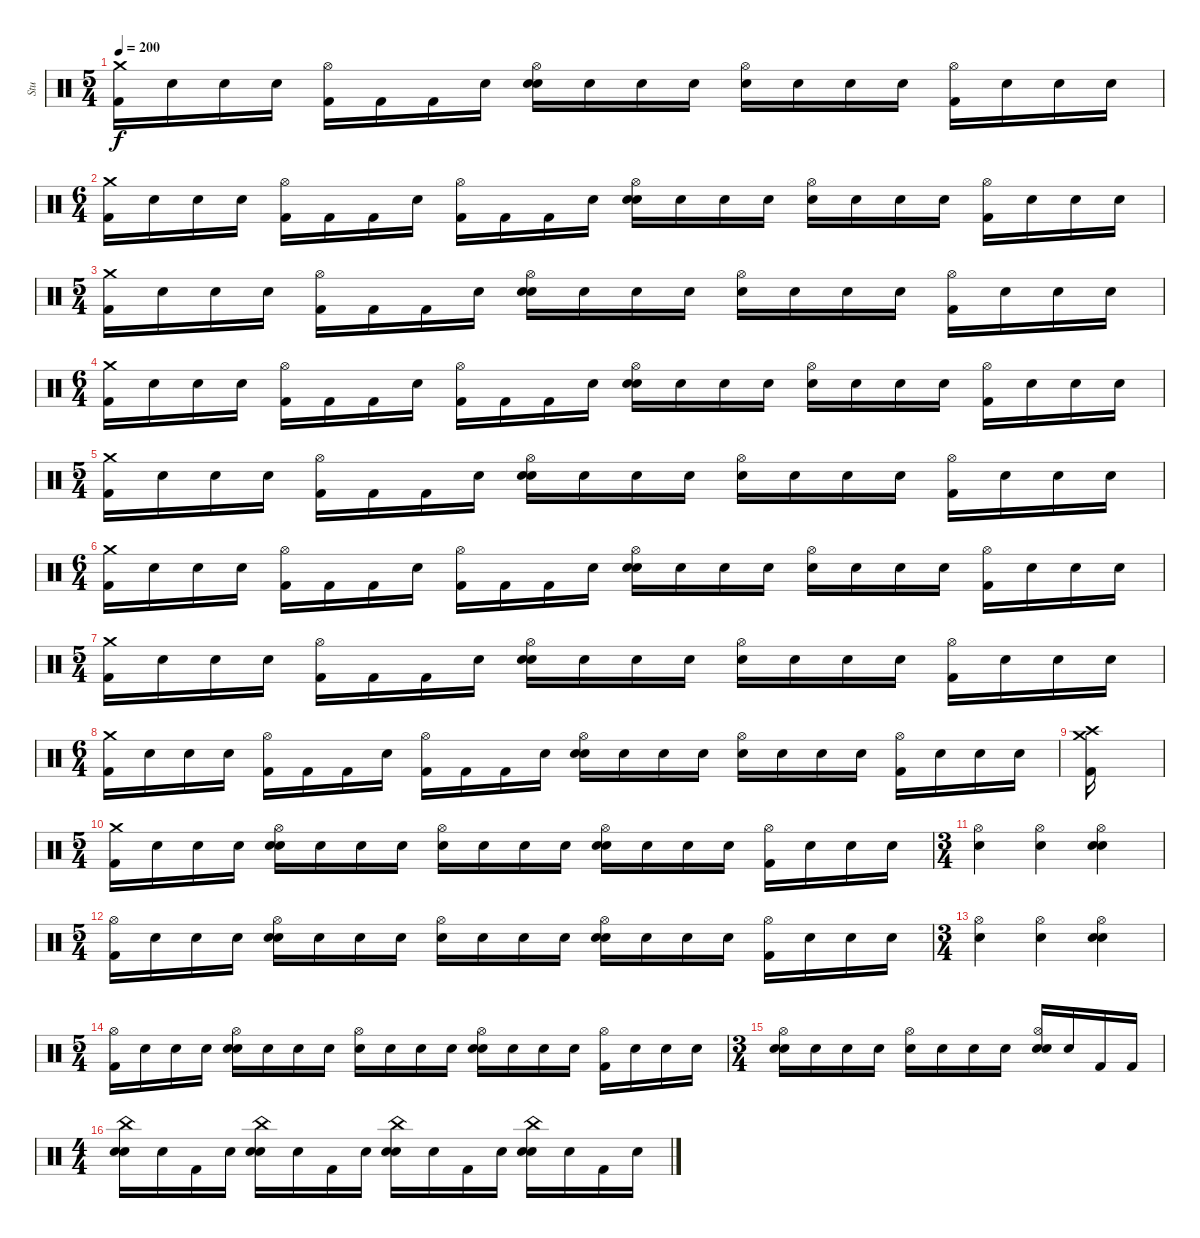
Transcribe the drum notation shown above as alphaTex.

\track ("Stu" "Stu") {instrument percussion}
\staff {score}
\articulation defaults
\ts (5 4)
\tempo 200
\clef neutral
\ks c
("Crash medium (hit)" "Kick (hit) 2").16{dy f} "Snare (hit)"{x}.16 "Snare (hit)"{x}.16 "Snare (hit)"{x}.16 ("Hi-Hat (open)" "Kick (hit) 2").16 "Kick (hit) 2".16 "Kick (hit) 2".16 "Snare (hit)"{x}.16 ("Hi-Hat (open)" "Electric Snare (hit)" "Snare (hit)"{x}).16 "Snare (hit)"{x}.16 "Snare (hit)"{x}.16 "Snare (hit)"{x}.16 ("Hi-Hat (open)" "Snare (hit)"{x}).16 "Snare (hit)"{x}.16 "Snare (hit)"{x}.16 "Snare (hit)"{x}.16 ("Hi-Hat (open)" "Kick (hit) 2").16 "Snare (hit)"{x}.16 "Snare (hit)"{x}.16 "Snare (hit)"{x}.16 |
\ts (6 4)
("Crash medium (hit)" "Kick (hit) 2").16 "Snare (hit)"{x}.16 "Snare (hit)"{x}.16 "Snare (hit)"{x}.16 ("Hi-Hat (open)" "Kick (hit) 2").16 "Kick (hit) 2".16 "Kick (hit) 2".16 "Snare (hit)"{x}.16 ("Hi-Hat (open)" "Kick (hit) 2").16 "Kick (hit) 2".16 "Kick (hit) 2".16 "Snare (hit)"{x}.16 ("Hi-Hat (open)" "Electric Snare (hit)" "Snare (hit)"{x}).16 "Snare (hit)"{x}.16 "Snare (hit)"{x}.16 "Snare (hit)"{x}.16 ("Hi-Hat (open)" "Snare (hit)"{x}).16 "Snare (hit)"{x}.16 "Snare (hit)"{x}.16 "Snare (hit)"{x}.16 ("Hi-Hat (open)" "Kick (hit) 2").16 "Snare (hit)"{x}.16 "Snare (hit)"{x}.16 "Snare (hit)"{x}.16 |
\ts (5 4)
("Crash medium (hit)" "Kick (hit) 2").16 "Snare (hit)"{x}.16 "Snare (hit)"{x}.16 "Snare (hit)"{x}.16 ("Hi-Hat (open)" "Kick (hit) 2").16 "Kick (hit) 2".16 "Kick (hit) 2".16 "Snare (hit)"{x}.16 ("Hi-Hat (open)" "Electric Snare (hit)" "Snare (hit)"{x}).16 "Snare (hit)"{x}.16 "Snare (hit)"{x}.16 "Snare (hit)"{x}.16 ("Hi-Hat (open)" "Snare (hit)"{x}).16 "Snare (hit)"{x}.16 "Snare (hit)"{x}.16 "Snare (hit)"{x}.16 ("Hi-Hat (open)" "Kick (hit) 2").16 "Snare (hit)"{x}.16 "Snare (hit)"{x}.16 "Snare (hit)"{x}.16 |
\ts (6 4)
("Crash medium (hit)" "Kick (hit) 2").16 "Snare (hit)"{x}.16 "Snare (hit)"{x}.16 "Snare (hit)"{x}.16 ("Hi-Hat (open)" "Kick (hit) 2").16 "Kick (hit) 2".16 "Kick (hit) 2".16 "Snare (hit)"{x}.16 ("Hi-Hat (open)" "Kick (hit) 2").16 "Kick (hit) 2".16 "Kick (hit) 2".16 "Snare (hit)"{x}.16 ("Hi-Hat (open)" "Electric Snare (hit)" "Snare (hit)"{x}).16 "Snare (hit)"{x}.16 "Snare (hit)"{x}.16 "Snare (hit)"{x}.16 ("Hi-Hat (open)" "Snare (hit)"{x}).16 "Snare (hit)"{x}.16 "Snare (hit)"{x}.16 "Snare (hit)"{x}.16 ("Hi-Hat (open)" "Kick (hit) 2").16 "Snare (hit)"{x}.16 "Snare (hit)"{x}.16 "Snare (hit)"{x}.16 |
\ts (5 4)
("Crash medium (hit)" "Kick (hit) 2").16 "Snare (hit)"{x}.16 "Snare (hit)"{x}.16 "Snare (hit)"{x}.16 ("Hi-Hat (open)" "Kick (hit) 2").16 "Kick (hit) 2".16 "Kick (hit) 2".16 "Snare (hit)"{x}.16 ("Hi-Hat (open)" "Electric Snare (hit)" "Snare (hit)"{x}).16 "Snare (hit)"{x}.16 "Snare (hit)"{x}.16 "Snare (hit)"{x}.16 ("Hi-Hat (open)" "Snare (hit)"{x}).16 "Snare (hit)"{x}.16 "Snare (hit)"{x}.16 "Snare (hit)"{x}.16 ("Hi-Hat (open)" "Kick (hit) 2").16 "Snare (hit)"{x}.16 "Snare (hit)"{x}.16 "Snare (hit)"{x}.16 |
\ts (6 4)
("Crash medium (hit)" "Kick (hit) 2").16 "Snare (hit)"{x}.16 "Snare (hit)"{x}.16 "Snare (hit)"{x}.16 ("Hi-Hat (open)" "Kick (hit) 2").16 "Kick (hit) 2".16 "Kick (hit) 2".16 "Snare (hit)"{x}.16 ("Hi-Hat (open)" "Kick (hit) 2").16 "Kick (hit) 2".16 "Kick (hit) 2".16 "Snare (hit)"{x}.16 ("Hi-Hat (open)" "Electric Snare (hit)" "Snare (hit)"{x}).16 "Snare (hit)"{x}.16 "Snare (hit)"{x}.16 "Snare (hit)"{x}.16 ("Hi-Hat (open)" "Snare (hit)"{x}).16 "Snare (hit)"{x}.16 "Snare (hit)"{x}.16 "Snare (hit)"{x}.16 ("Hi-Hat (open)" "Kick (hit) 2").16 "Snare (hit)"{x}.16 "Snare (hit)"{x}.16 "Snare (hit)"{x}.16 |
\ts (5 4)
("Crash medium (hit)" "Kick (hit) 2").16 "Snare (hit)"{x}.16 "Snare (hit)"{x}.16 "Snare (hit)"{x}.16 ("Hi-Hat (open)" "Kick (hit) 2").16 "Kick (hit) 2".16 "Kick (hit) 2".16 "Snare (hit)"{x}.16 ("Hi-Hat (open)" "Electric Snare (hit)" "Snare (hit)"{x}).16 "Snare (hit)"{x}.16 "Snare (hit)"{x}.16 "Snare (hit)"{x}.16 ("Hi-Hat (open)" "Snare (hit)"{x}).16 "Snare (hit)"{x}.16 "Snare (hit)"{x}.16 "Snare (hit)"{x}.16 ("Hi-Hat (open)" "Kick (hit) 2").16 "Snare (hit)"{x}.16 "Snare (hit)"{x}.16 "Snare (hit)"{x}.16 |
\ts (6 4)
("Crash medium (hit)" "Kick (hit) 2").16 "Snare (hit)"{x}.16 "Snare (hit)"{x}.16 "Snare (hit)"{x}.16 ("Hi-Hat (open)" "Kick (hit) 2").16 "Kick (hit) 2".16 "Kick (hit) 2".16 "Snare (hit)"{x}.16 ("Hi-Hat (open)" "Kick (hit) 2").16 "Kick (hit) 2".16 "Kick (hit) 2".16 "Snare (hit)"{x}.16 ("Hi-Hat (open)" "Electric Snare (hit)" "Snare (hit)"{x}).16 "Snare (hit)"{x}.16 "Snare (hit)"{x}.16 "Snare (hit)"{x}.16 ("Hi-Hat (open)" "Snare (hit)"{x}).16 "Snare (hit)"{x}.16 "Snare (hit)"{x}.16 "Snare (hit)"{x}.16 ("Hi-Hat (open)" "Kick (hit) 2").16 "Snare (hit)"{x}.16 "Snare (hit)"{x}.16 "Snare (hit)"{x}.16 |
("Crash medium (hit)" "Crash high (hit)" "Kick (hit) 2").16 |
\ts (5 4)
("Crash medium (hit)" "Kick (hit) 2").16 "Snare (hit)"{x}.16 "Snare (hit)"{x}.16 "Snare (hit)"{x}.16 ("Hi-Hat (open)" "Electric Snare (hit)" "Snare (hit)"{x}).16 "Snare (hit)"{x}.16 "Snare (hit)"{x}.16 "Snare (hit)"{x}.16 ("Hi-Hat (open)" "Snare (hit)"{x}).16 "Snare (hit)"{x}.16 "Snare (hit)"{x}.16 "Snare (hit)"{x}.16 ("Hi-Hat (open)" "Electric Snare (hit)" "Snare (hit)"{x}).16 "Snare (hit)"{x}.16 "Snare (hit)"{x}.16 "Snare (hit)"{x}.16 ("Hi-Hat (open)" "Kick (hit) 2").16 "Snare (hit)"{x}.16 "Snare (hit)"{x}.16 "Snare (hit)"{x}.16 |
\ts (3 4)
("Hi-Hat (open)" "Electric Snare (hit)").4 ("Hi-Hat (open)" "Snare (hit)"{x}).4 ("Hi-Hat (open)" "Electric Snare (hit)" "Snare (hit)"{x}).4 |
\ts (5 4)
("Hi-Hat (open)" "Kick (hit) 2").16 "Snare (hit)"{x}.16 "Snare (hit)"{x}.16 "Snare (hit)"{x}.16 ("Hi-Hat (open)" "Electric Snare (hit)" "Snare (hit)"{x}).16 "Snare (hit)"{x}.16 "Snare (hit)"{x}.16 "Snare (hit)"{x}.16 ("Hi-Hat (open)" "Snare (hit)"{x}).16 "Snare (hit)"{x}.16 "Snare (hit)"{x}.16 "Snare (hit)"{x}.16 ("Hi-Hat (open)" "Electric Snare (hit)" "Snare (hit)"{x}).16 "Snare (hit)"{x}.16 "Snare (hit)"{x}.16 "Snare (hit)"{x}.16 ("Hi-Hat (open)" "Kick (hit) 2").16 "Snare (hit)"{x}.16 "Snare (hit)"{x}.16 "Snare (hit)"{x}.16 |
\ts (3 4)
("Hi-Hat (open)" "Electric Snare (hit)").4 ("Hi-Hat (open)" "Snare (hit)"{x}).4 ("Hi-Hat (open)" "Electric Snare (hit)" "Snare (hit)"{x}).4 |
\ts (5 4)
("Hi-Hat (open)" "Kick (hit) 2").16 "Snare (hit)"{x}.16 "Snare (hit)"{x}.16 "Snare (hit)"{x}.16 ("Hi-Hat (open)" "Electric Snare (hit)" "Snare (hit)"{x}).16 "Snare (hit)"{x}.16 "Snare (hit)"{x}.16 "Snare (hit)"{x}.16 ("Hi-Hat (open)" "Snare (hit)"{x}).16 "Snare (hit)"{x}.16 "Snare (hit)"{x}.16 "Snare (hit)"{x}.16 ("Hi-Hat (open)" "Electric Snare (hit)" "Snare (hit)"{x}).16 "Snare (hit)"{x}.16 "Snare (hit)"{x}.16 "Snare (hit)"{x}.16 ("Hi-Hat (open)" "Kick (hit) 2").16 "Snare (hit)"{x}.16 "Snare (hit)"{x}.16 "Snare (hit)"{x}.16 |
\ts (3 4)
("Hi-Hat (open)" "Electric Snare (hit)" "Snare (hit)"{x}).16 "Snare (hit)"{x}.16 "Snare (hit)"{x}.16 "Snare (hit)"{x}.16 ("Hi-Hat (open)" "Snare (hit)"{x}).16 "Snare (hit)"{x}.16 "Snare (hit)"{x}.16 "Snare (hit)"{x}.16 ("Hi-Hat (open)" "Electric Snare (hit)" "Snare (hit)"{x}).16 "Snare (hit)"{x}.16 "Kick (hit) 2".16 "Kick (hit) 2".16 |
\ts (4 4)
("China (hit)" "Electric Snare (hit)" "Snare (hit)"{x}).16 "Snare (hit)"{x}.16 "Kick (hit) 2".16 "Snare (hit)"{x}.16 ("China (hit)" "Electric Snare (hit)" "Snare (hit)"{x}).16 "Snare (hit)"{x}.16 "Kick (hit) 2".16 "Snare (hit)"{x}.16 ("China (hit)" "Electric Snare (hit)" "Snare (hit)"{x}).16 "Snare (hit)"{x}.16 "Kick (hit) 2".16 "Snare (hit)"{x}.16 ("China (hit)" "Electric Snare (hit)" "Snare (hit)"{x}).16 "Snare (hit)"{x}.16 "Kick (hit) 2".16 "Snare (hit)"{x}.16
